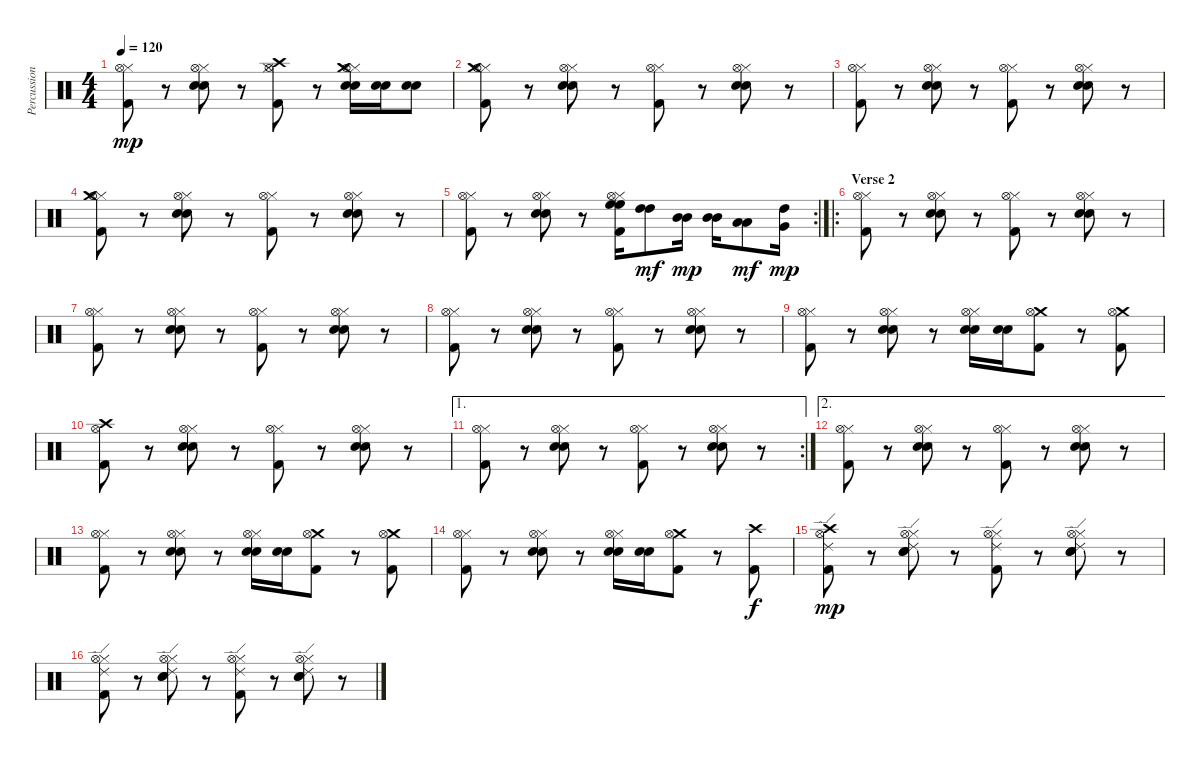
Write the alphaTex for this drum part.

\track ("Percussion" "Percussion") {instrument percussion}
\staff {score}
\articulation defaults
\ts (4 4)
\tempo 120
\clef neutral
\ks c
("Hi-Hat (closed)" "Hi-Hat (open)" "Kick (hit) 2").8{dy mp} r.8 ("Hi-Hat (closed)" "Hi-Hat (open)" "Electric Snare (hit)" "Snare (hit) 2").8 r.8 ("Hi-Hat (closed)" "Hi-Hat (open)" "Crash high (hit)" "Kick (hit) 2").8 r.8 ("Hi-Hat (closed)" "Hi-Hat (open)" "Crash medium (hit)" "Electric Snare (hit)" "Snare (hit) 2").16 ("Electric Snare (hit)" "Snare (hit) 2").16 ("Electric Snare (hit)" "Snare (hit) 2").8 |
("Hi-Hat (closed)" "Hi-Hat (open)" "Crash medium (hit)" "Kick (hit) 2").8 r.8 ("Hi-Hat (closed)" "Hi-Hat (open)" "Electric Snare (hit)" "Snare (hit) 2").8 r.8 ("Hi-Hat (closed)" "Hi-Hat (open)" "Kick (hit) 2").8 r.8 ("Hi-Hat (closed)" "Hi-Hat (open)" "Electric Snare (hit)" "Snare (hit) 2").8 r.8 |
("Hi-Hat (closed)" "Hi-Hat (open)" "Kick (hit) 2").8 r.8 ("Hi-Hat (closed)" "Hi-Hat (open)" "Electric Snare (hit)" "Snare (hit) 2").8 r.8 ("Hi-Hat (closed)" "Hi-Hat (open)" "Kick (hit) 2").8 r.8 ("Hi-Hat (closed)" "Hi-Hat (open)" "Electric Snare (hit)" "Snare (hit) 2").8 r.8 |
("Hi-Hat (closed)" "Hi-Hat (open)" "Crash medium (hit)" "Kick (hit) 2").8 r.8 ("Hi-Hat (closed)" "Hi-Hat (open)" "Electric Snare (hit)" "Snare (hit) 2").8 r.8 ("Hi-Hat (closed)" "Hi-Hat (open)" "Kick (hit) 2").8 r.8 ("Hi-Hat (closed)" "Hi-Hat (open)" "Electric Snare (hit)" "Snare (hit) 2").8 r.8 |
\rc 2
("Hi-Hat (closed)" "Hi-Hat (open)" "Kick (hit) 2").8 r.8 ("Hi-Hat (closed)" "Hi-Hat (open)" "Electric Snare (hit)" "Snare (hit) 2").8 r.8 ("Hi-Hat (closed)" "Hi-Hat (open)" "High Floor Tom (hit)" "High Floor Tom (hit)" "Kick (hit) 2").16 ("High Tom (hit)" "High Tom (hit)").8{dy mf} ("Mid Tom (hit)" "Mid Tom (hit)").16{dy mp} ("Mid Tom (hit)" "Mid Tom (hit)").16 ("Low Tom (hit)" "Low Tom (hit)").8{dy mf} ("High Tom (hit)" "Very Low Tom (hit)").16{dy mp} |
\ro
\section ("" "Verse 2")
("Hi-Hat (closed)" "Hi-Hat (open)" "Kick (hit) 2").8 r.8 ("Hi-Hat (closed)" "Hi-Hat (open)" "Electric Snare (hit)" "Snare (hit) 2").8 r.8 ("Hi-Hat (closed)" "Hi-Hat (open)" "Kick (hit) 2").8 r.8 ("Hi-Hat (closed)" "Hi-Hat (open)" "Electric Snare (hit)" "Snare (hit) 2").8 r.8 |
("Hi-Hat (closed)" "Hi-Hat (open)" "Kick (hit) 2").8 r.8 ("Hi-Hat (closed)" "Hi-Hat (open)" "Electric Snare (hit)" "Snare (hit) 2").8 r.8 ("Hi-Hat (closed)" "Hi-Hat (open)" "Kick (hit) 2").8 r.8 ("Hi-Hat (closed)" "Hi-Hat (open)" "Electric Snare (hit)" "Snare (hit) 2").8 r.8 |
("Hi-Hat (closed)" "Hi-Hat (open)" "Kick (hit) 2").8 r.8 ("Hi-Hat (closed)" "Hi-Hat (open)" "Electric Snare (hit)" "Snare (hit) 2").8 r.8 ("Hi-Hat (closed)" "Hi-Hat (open)" "Kick (hit) 2").8 r.8 ("Hi-Hat (closed)" "Hi-Hat (open)" "Electric Snare (hit)" "Snare (hit) 2").8 r.8 |
("Hi-Hat (closed)" "Hi-Hat (open)" "Kick (hit) 2").8 r.8 ("Hi-Hat (closed)" "Hi-Hat (open)" "Electric Snare (hit)" "Snare (hit) 2").8 r.8 ("Hi-Hat (closed)" "Hi-Hat (open)" "Electric Snare (hit)" "Snare (hit) 2").16 ("Electric Snare (hit)" "Snare (hit) 2").16 ("Crash medium (hit)" "Hi-Hat (open)" "Kick (hit) 2").8 r.8 ("Crash medium (hit)" "Hi-Hat (open)" "Kick (hit) 2").8 |
("Crash high (hit)" "Hi-Hat (open)" "Kick (hit) 2").8 r.8 ("Hi-Hat (closed)" "Hi-Hat (open)" "Electric Snare (hit)" "Snare (hit) 2").8 r.8 ("Hi-Hat (closed)" "Hi-Hat (open)" "Kick (hit) 2").8 r.8 ("Hi-Hat (closed)" "Hi-Hat (open)" "Electric Snare (hit)" "Snare (hit) 2").8 r.8 |
\ae 1
\rc 2
("Hi-Hat (closed)" "Hi-Hat (open)" "Kick (hit) 2").8 r.8 ("Hi-Hat (closed)" "Hi-Hat (open)" "Electric Snare (hit)" "Snare (hit) 2").8 r.8 ("Hi-Hat (closed)" "Hi-Hat (open)" "Kick (hit) 2").8 r.8 ("Hi-Hat (closed)" "Hi-Hat (open)" "Electric Snare (hit)" "Snare (hit) 2").8 r.8 |
\ae 2
("Hi-Hat (closed)" "Hi-Hat (open)" "Kick (hit) 2").8 r.8 ("Hi-Hat (closed)" "Hi-Hat (open)" "Electric Snare (hit)" "Snare (hit) 2").8 r.8 ("Hi-Hat (closed)" "Hi-Hat (open)" "Kick (hit) 2").8 r.8 ("Hi-Hat (closed)" "Hi-Hat (open)" "Electric Snare (hit)" "Snare (hit) 2").8 r.8 |
("Hi-Hat (closed)" "Hi-Hat (open)" "Kick (hit) 2").8 r.8 ("Hi-Hat (closed)" "Hi-Hat (open)" "Electric Snare (hit)" "Snare (hit) 2").8 r.8 ("Hi-Hat (closed)" "Hi-Hat (open)" "Electric Snare (hit)" "Snare (hit) 2").16 ("Electric Snare (hit)" "Snare (hit) 2").16 ("Crash medium (hit)" "Hi-Hat (open)" "Kick (hit) 2").8 r.8 ("Crash medium (hit)" "Hi-Hat (open)" "Kick (hit) 2").8 |
("Hi-Hat (closed)" "Hi-Hat (open)" "Kick (hit) 2").8 r.8 ("Hi-Hat (closed)" "Hi-Hat (open)" "Electric Snare (hit)" "Snare (hit) 2").8 r.8 ("Hi-Hat (closed)" "Hi-Hat (open)" "Electric Snare (hit)" "Snare (hit) 2").16 ("Electric Snare (hit)" "Snare (hit) 2").16 ("Crash medium (hit)" "Hi-Hat (open)" "Kick (hit) 2").8 r.8 ("Crash high (hit)" "Kick (hit) 2").8{dy f} |
("Crash high (hit)" "Hi-Hat (open)" "Ride (edge) 2" "Kick (hit) 2").8{dy mp} r.8 ("Hi-Hat (closed)" "Hi-Hat (open)" "Ride (edge) 2" "Electric Snare (hit)" "Snare (hit) 2").8 r.8 ("Hi-Hat (closed)" "Hi-Hat (open)" "Ride (edge) 2" "Kick (hit) 2").8 r.8 ("Hi-Hat (closed)" "Hi-Hat (open)" "Ride (edge) 2" "Electric Snare (hit)" "Snare (hit) 2").8 r.8 |
("Hi-Hat (closed)" "Hi-Hat (open)" "Ride (edge) 2" "Kick (hit) 2").8 r.8 ("Hi-Hat (closed)" "Hi-Hat (open)" "Ride (edge) 2" "Electric Snare (hit)" "Snare (hit) 2").8 r.8 ("Hi-Hat (closed)" "Hi-Hat (open)" "Ride (edge) 2" "Kick (hit) 2").8 r.8 ("Hi-Hat (closed)" "Hi-Hat (open)" "Ride (edge) 2" "Electric Snare (hit)" "Snare (hit) 2").8 r.8
